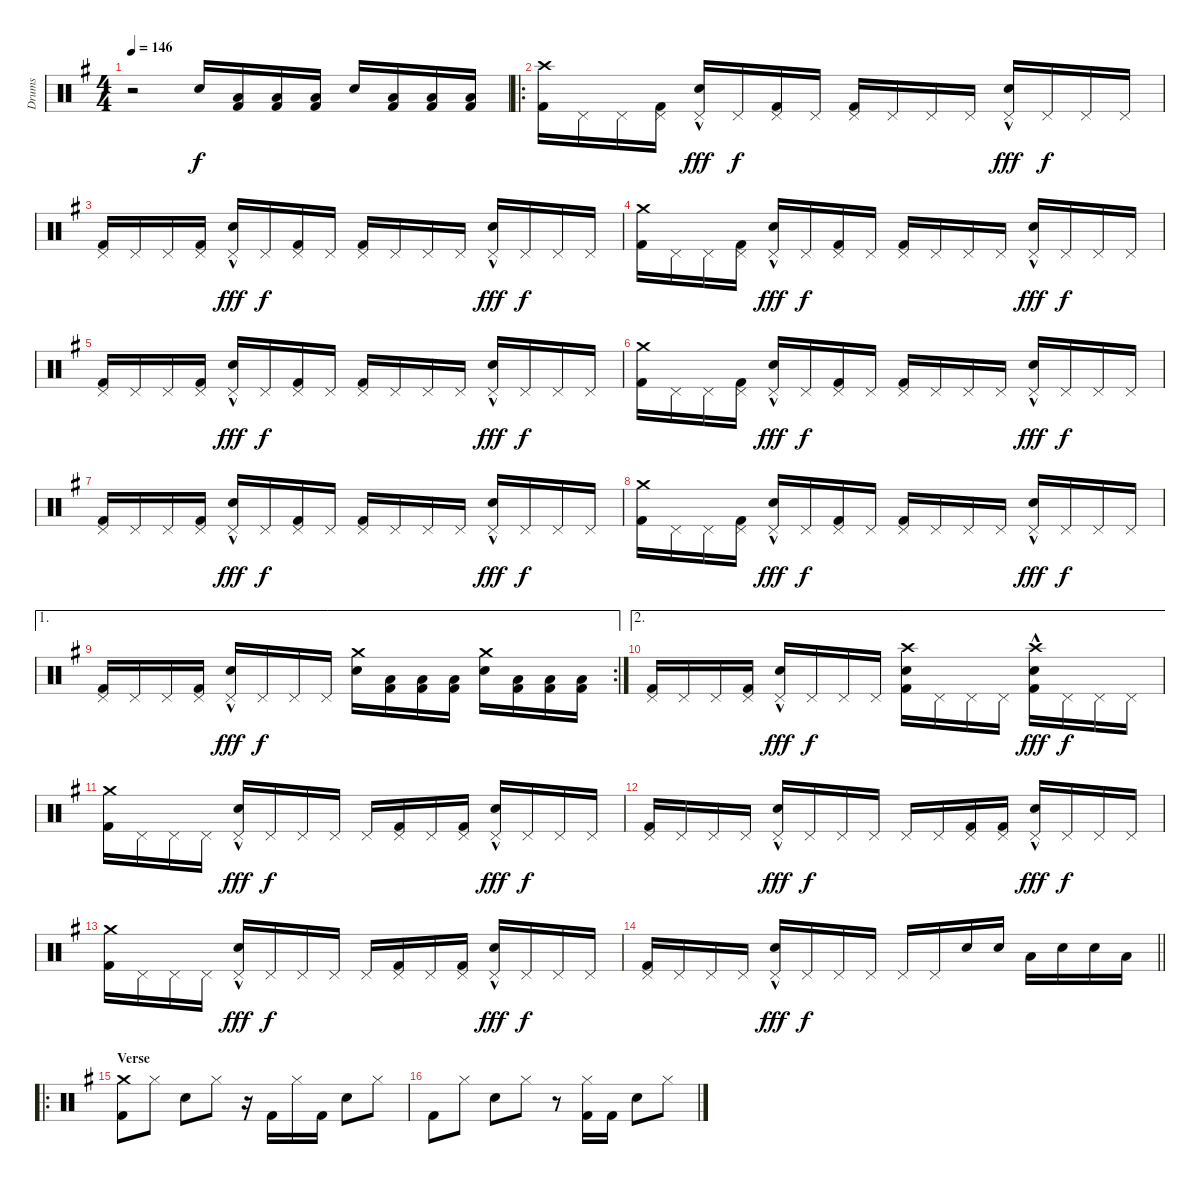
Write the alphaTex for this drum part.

\track ("Drums" "Drums") {instrument percussion}
\staff {score}
\articulation defaults
\ts (4 4)
\tempo 146
\clef neutral
\ks eminor
r.2{dy f} "Snare (hit) 2".16 ("Low Floor Tom (hit)" "Kick (hit) 2").16 ("Low Floor Tom (hit)" "Kick (hit) 2").16 ("Low Floor Tom (hit)" "Kick (hit) 2").16 "Snare (hit) 2".16 ("Low Floor Tom (hit)" "Kick (hit) 2").16 ("Low Floor Tom (hit)" "Kick (hit) 2").16 ("Low Floor Tom (hit)" "Kick (hit) 2").16 |
\ro
("Crash high (hit)" "Kick (hit) 2").16 "Pedal Hi-Hat (hit)".16 "Pedal Hi-Hat (hit)".16 ("Pedal Hi-Hat (hit)" "Kick (hit) 2").16 ("Pedal Hi-Hat (hit)"{hac} "Snare (hit) 2").16{dy fff} "Pedal Hi-Hat (hit)".16{dy f} ("Pedal Hi-Hat (hit)" "Kick (hit) 2").16 "Pedal Hi-Hat (hit)".16 ("Pedal Hi-Hat (hit)" "Kick (hit) 2").16 "Pedal Hi-Hat (hit)".16 "Pedal Hi-Hat (hit)".16 "Pedal Hi-Hat (hit)".16 ("Pedal Hi-Hat (hit)"{hac} "Snare (hit) 2").16{dy fff} "Pedal Hi-Hat (hit)".16{dy f} "Pedal Hi-Hat (hit)".16 "Pedal Hi-Hat (hit)".16 |
("Pedal Hi-Hat (hit)" "Kick (hit) 2").16 "Pedal Hi-Hat (hit)".16 "Pedal Hi-Hat (hit)".16 ("Pedal Hi-Hat (hit)" "Kick (hit) 2").16 ("Pedal Hi-Hat (hit)"{hac} "Snare (hit) 2").16{dy fff} "Pedal Hi-Hat (hit)".16{dy f} ("Pedal Hi-Hat (hit)" "Kick (hit) 2").16 "Pedal Hi-Hat (hit)".16 ("Pedal Hi-Hat (hit)" "Kick (hit) 2").16 "Pedal Hi-Hat (hit)".16 "Pedal Hi-Hat (hit)".16 "Pedal Hi-Hat (hit)".16 ("Pedal Hi-Hat (hit)"{hac} "Snare (hit) 2").16{dy fff} "Pedal Hi-Hat (hit)".16{dy f} "Pedal Hi-Hat (hit)".16 "Pedal Hi-Hat (hit)".16 |
("Crash medium (hit)" "Kick (hit) 2").16 "Pedal Hi-Hat (hit)".16 "Pedal Hi-Hat (hit)".16 ("Pedal Hi-Hat (hit)" "Kick (hit) 2").16 ("Pedal Hi-Hat (hit)"{hac} "Snare (hit) 2").16{dy fff} "Pedal Hi-Hat (hit)".16{dy f} ("Pedal Hi-Hat (hit)" "Kick (hit) 2").16 "Pedal Hi-Hat (hit)".16 ("Pedal Hi-Hat (hit)" "Kick (hit) 2").16 "Pedal Hi-Hat (hit)".16 "Pedal Hi-Hat (hit)".16 "Pedal Hi-Hat (hit)".16 ("Pedal Hi-Hat (hit)"{hac} "Snare (hit) 2").16{dy fff} "Pedal Hi-Hat (hit)".16{dy f} "Pedal Hi-Hat (hit)".16 "Pedal Hi-Hat (hit)".16 |
("Pedal Hi-Hat (hit)" "Kick (hit) 2").16 "Pedal Hi-Hat (hit)".16 "Pedal Hi-Hat (hit)".16 ("Pedal Hi-Hat (hit)" "Kick (hit) 2").16 ("Pedal Hi-Hat (hit)"{hac} "Snare (hit) 2").16{dy fff} "Pedal Hi-Hat (hit)".16{dy f} ("Pedal Hi-Hat (hit)" "Kick (hit) 2").16 "Pedal Hi-Hat (hit)".16 ("Pedal Hi-Hat (hit)" "Kick (hit) 2").16 "Pedal Hi-Hat (hit)".16 "Pedal Hi-Hat (hit)".16 "Pedal Hi-Hat (hit)".16 ("Pedal Hi-Hat (hit)"{hac} "Snare (hit) 2").16{dy fff} "Pedal Hi-Hat (hit)".16{dy f} "Pedal Hi-Hat (hit)".16 "Pedal Hi-Hat (hit)".16 |
("Crash medium (hit)" "Kick (hit) 2").16 "Pedal Hi-Hat (hit)".16 "Pedal Hi-Hat (hit)".16 ("Pedal Hi-Hat (hit)" "Kick (hit) 2").16 ("Pedal Hi-Hat (hit)"{hac} "Snare (hit) 2").16{dy fff} "Pedal Hi-Hat (hit)".16{dy f} ("Pedal Hi-Hat (hit)" "Kick (hit) 2").16 "Pedal Hi-Hat (hit)".16 ("Pedal Hi-Hat (hit)" "Kick (hit) 2").16 "Pedal Hi-Hat (hit)".16 "Pedal Hi-Hat (hit)".16 "Pedal Hi-Hat (hit)".16 ("Pedal Hi-Hat (hit)"{hac} "Snare (hit) 2").16{dy fff} "Pedal Hi-Hat (hit)".16{dy f} "Pedal Hi-Hat (hit)".16 "Pedal Hi-Hat (hit)".16 |
("Pedal Hi-Hat (hit)" "Kick (hit) 2").16 "Pedal Hi-Hat (hit)".16 "Pedal Hi-Hat (hit)".16 ("Pedal Hi-Hat (hit)" "Kick (hit) 2").16 ("Pedal Hi-Hat (hit)"{hac} "Snare (hit) 2").16{dy fff} "Pedal Hi-Hat (hit)".16{dy f} ("Pedal Hi-Hat (hit)" "Kick (hit) 2").16 "Pedal Hi-Hat (hit)".16 ("Pedal Hi-Hat (hit)" "Kick (hit) 2").16 "Pedal Hi-Hat (hit)".16 "Pedal Hi-Hat (hit)".16 "Pedal Hi-Hat (hit)".16 ("Pedal Hi-Hat (hit)"{hac} "Snare (hit) 2").16{dy fff} "Pedal Hi-Hat (hit)".16{dy f} "Pedal Hi-Hat (hit)".16 "Pedal Hi-Hat (hit)".16 |
("Crash medium (hit)" "Kick (hit) 2").16 "Pedal Hi-Hat (hit)".16 "Pedal Hi-Hat (hit)".16 ("Pedal Hi-Hat (hit)" "Kick (hit) 2").16 ("Pedal Hi-Hat (hit)"{hac} "Snare (hit) 2").16{dy fff} "Pedal Hi-Hat (hit)".16{dy f} ("Pedal Hi-Hat (hit)" "Kick (hit) 2").16 "Pedal Hi-Hat (hit)".16 ("Pedal Hi-Hat (hit)" "Kick (hit) 2").16 "Pedal Hi-Hat (hit)".16 "Pedal Hi-Hat (hit)".16 "Pedal Hi-Hat (hit)".16 ("Pedal Hi-Hat (hit)"{hac} "Snare (hit) 2").16{dy fff} "Pedal Hi-Hat (hit)".16{dy f} "Pedal Hi-Hat (hit)".16 "Pedal Hi-Hat (hit)".16 |
\ae 1
\rc 2
("Pedal Hi-Hat (hit)" "Kick (hit) 2").16 "Pedal Hi-Hat (hit)".16 "Pedal Hi-Hat (hit)".16 ("Pedal Hi-Hat (hit)" "Kick (hit) 2").16 ("Pedal Hi-Hat (hit)"{hac} "Snare (hit) 2").16{dy fff} "Pedal Hi-Hat (hit)".16{dy f} "Pedal Hi-Hat (hit)".16 "Pedal Hi-Hat (hit)".16 ("Crash medium (hit)" "Snare (hit) 2").16 ("Low Floor Tom (hit)" "Kick (hit) 2").16 ("Low Floor Tom (hit)" "Kick (hit) 2").16 ("Low Floor Tom (hit)" "Kick (hit) 2").16 ("Crash medium (hit)" "Snare (hit) 2").16 ("Low Floor Tom (hit)" "Kick (hit) 2").16 ("Low Floor Tom (hit)" "Kick (hit) 2").16 ("Low Floor Tom (hit)" "Kick (hit) 2").16 |
\ae 2
("Pedal Hi-Hat (hit)" "Kick (hit) 2").16 "Pedal Hi-Hat (hit)".16 "Pedal Hi-Hat (hit)".16 ("Pedal Hi-Hat (hit)" "Kick (hit) 2").16 ("Pedal Hi-Hat (hit)"{hac} "Snare (hit) 2").16{dy fff} "Pedal Hi-Hat (hit)".16{dy f} "Pedal Hi-Hat (hit)".16 "Pedal Hi-Hat (hit)".16 ("Crash high (hit)" "Snare (hit) 2" "Kick (hit) 2").16 "Pedal Hi-Hat (hit)".16 "Pedal Hi-Hat (hit)".16 "Pedal Hi-Hat (hit)".16 ("Crash high (hit)"{hac} "Snare (hit) 2" "Kick (hit) 2").16{dy fff} "Pedal Hi-Hat (hit)".16{dy f} "Pedal Hi-Hat (hit)".16 "Pedal Hi-Hat (hit)".16 |
("Crash medium (hit)" "Kick (hit) 2").16 "Pedal Hi-Hat (hit)".16 "Pedal Hi-Hat (hit)".16 "Pedal Hi-Hat (hit)".16 ("Pedal Hi-Hat (hit)"{hac} "Snare (hit) 2").16{dy fff} "Pedal Hi-Hat (hit)".16{dy f} "Pedal Hi-Hat (hit)".16 "Pedal Hi-Hat (hit)".16 "Pedal Hi-Hat (hit)".16 ("Pedal Hi-Hat (hit)" "Kick (hit) 2").16 "Pedal Hi-Hat (hit)".16 ("Pedal Hi-Hat (hit)" "Kick (hit) 2").16 ("Pedal Hi-Hat (hit)"{hac} "Snare (hit) 2").16{dy fff} "Pedal Hi-Hat (hit)".16{dy f} "Pedal Hi-Hat (hit)".16 "Pedal Hi-Hat (hit)".16 |
("Pedal Hi-Hat (hit)" "Kick (hit) 2").16 "Pedal Hi-Hat (hit)".16 "Pedal Hi-Hat (hit)".16 "Pedal Hi-Hat (hit)".16 ("Pedal Hi-Hat (hit)"{hac} "Snare (hit) 2").16{dy fff} "Pedal Hi-Hat (hit)".16{dy f} "Pedal Hi-Hat (hit)".16 "Pedal Hi-Hat (hit)".16 "Pedal Hi-Hat (hit)".16 "Pedal Hi-Hat (hit)".16 ("Pedal Hi-Hat (hit)" "Kick (hit) 2").16 ("Pedal Hi-Hat (hit)" "Kick (hit) 2").16 ("Pedal Hi-Hat (hit)"{hac} "Snare (hit) 2").16{dy fff} "Pedal Hi-Hat (hit)".16{dy f} "Pedal Hi-Hat (hit)".16 "Pedal Hi-Hat (hit)".16 |
("Crash medium (hit)" "Kick (hit) 2").16 "Pedal Hi-Hat (hit)".16 "Pedal Hi-Hat (hit)".16 "Pedal Hi-Hat (hit)".16 ("Pedal Hi-Hat (hit)"{hac} "Snare (hit) 2").16{dy fff} "Pedal Hi-Hat (hit)".16{dy f} "Pedal Hi-Hat (hit)".16 "Pedal Hi-Hat (hit)".16 "Pedal Hi-Hat (hit)".16 ("Pedal Hi-Hat (hit)" "Kick (hit) 2").16 "Pedal Hi-Hat (hit)".16 ("Pedal Hi-Hat (hit)" "Kick (hit) 2").16 ("Pedal Hi-Hat (hit)"{hac} "Snare (hit) 2").16{dy fff} "Pedal Hi-Hat (hit)".16{dy f} "Pedal Hi-Hat (hit)".16 "Pedal Hi-Hat (hit)".16 |
\barLineRight lightlight
("Pedal Hi-Hat (hit)" "Kick (hit) 2").16 "Pedal Hi-Hat (hit)".16 "Pedal Hi-Hat (hit)".16 "Pedal Hi-Hat (hit)".16 ("Pedal Hi-Hat (hit)"{hac} "Snare (hit) 2").16{dy fff} "Pedal Hi-Hat (hit)".16{dy f} "Pedal Hi-Hat (hit)".16 "Pedal Hi-Hat (hit)".16 "Pedal Hi-Hat (hit)".16 "Pedal Hi-Hat (hit)".16 "Snare (hit) 2".16 "Snare (hit) 2".16 "Low Floor Tom (hit)".16 "Snare (hit) 2".16 "Snare (hit) 2".16 "Low Floor Tom (hit)".16 |
\ro
\section ("" "Verse")
("Crash medium (hit)" "Kick (hit) 2").8 "Hi-Hat (closed)".8 "Snare (hit) 2".8 "Hi-Hat (closed)".8 r.16 "Kick (hit) 2".16 "Hi-Hat (closed)".16 "Kick (hit) 2".16 "Snare (hit) 2".8 "Hi-Hat (closed)".8 |
"Kick (hit) 2".8 "Hi-Hat (closed)".8 "Snare (hit) 2".8 "Hi-Hat (closed)".8 r.8 ("Hi-Hat (closed)" "Kick (hit) 2").16 "Kick (hit) 2".16 "Snare (hit) 2".8 "Hi-Hat (closed)".8
